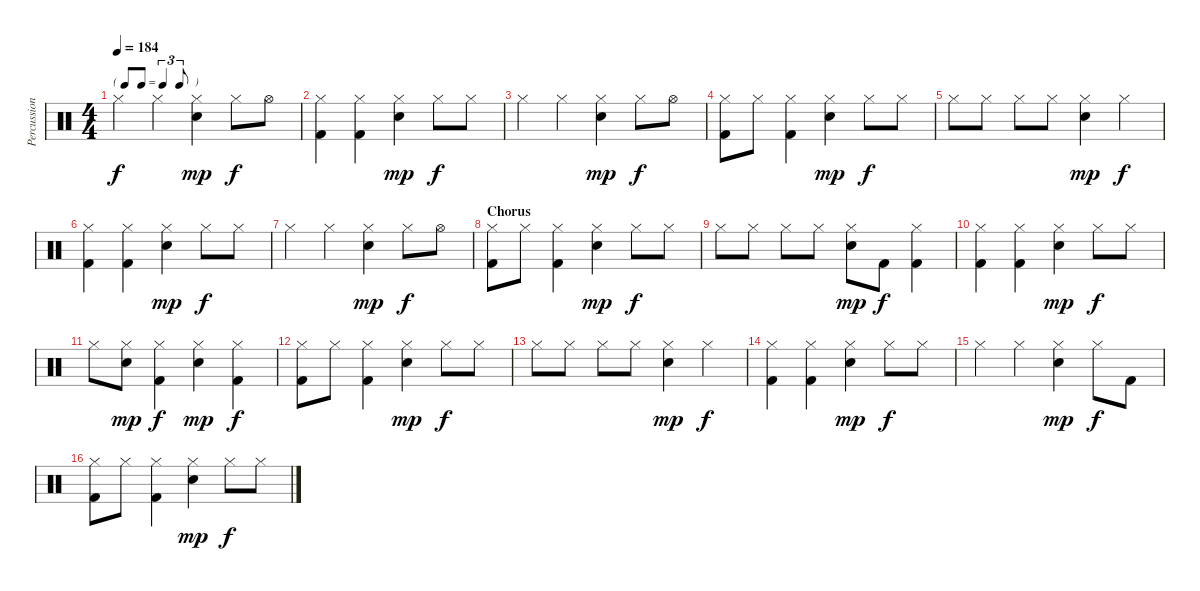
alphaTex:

\track ("Percussion" "Percussion") {instrument percussion}
\staff {score}
\articulation defaults
\ts (4 4)
\tf triplet8th
\tempo 184
\clef neutral
\ks c "Hi-Hat (closed)".4{dy f} "Hi-Hat (closed)".4
("Hi-Hat (closed)" "Electric Snare (hit)").4{dy mp} "Hi-Hat (closed)".8{dy f} "Hi-Hat (open)".8 |
("Hi-Hat (closed)" "Kick (hit) 2").4 ("Hi-Hat (closed)" "Kick (hit) 2").4 ("Hi-Hat (closed)" "Electric Snare (hit)").4{dy mp} "Hi-Hat (closed)".8{dy f} "Hi-Hat (closed)".8 |
"Hi-Hat (closed)".4 "Hi-Hat (closed)".4 ("Hi-Hat (closed)" "Electric Snare (hit)").4{dy mp} "Hi-Hat (closed)".8{dy f} "Hi-Hat (open)".8 |
("Hi-Hat (closed)" "Kick (hit) 2").8 "Hi-Hat (closed)".8 ("Hi-Hat (closed)" "Kick (hit) 2").4 ("Hi-Hat (closed)" "Electric Snare (hit)").4{dy mp} "Hi-Hat (closed)".8{dy f} "Hi-Hat (closed)".8 |
"Hi-Hat (closed)".8 "Hi-Hat (closed)".8 "Hi-Hat (closed)".8 "Hi-Hat (closed)".8 ("Hi-Hat (closed)" "Electric Snare (hit)").4{dy mp} "Hi-Hat (closed)".4{dy f} |
("Hi-Hat (closed)" "Kick (hit) 2").4 ("Hi-Hat (closed)" "Kick (hit) 2").4 ("Hi-Hat (closed)" "Electric Snare (hit)").4{dy mp} "Hi-Hat (closed)".8{dy f} "Hi-Hat (closed)".8 |
"Hi-Hat (closed)".4 "Hi-Hat (closed)".4 ("Hi-Hat (closed)" "Electric Snare (hit)").4{dy mp} "Hi-Hat (closed)".8{dy f} "Hi-Hat (open)".8 |
\section ("" "Chorus")
("Hi-Hat (closed)" "Kick (hit) 2").8 "Hi-Hat (closed)".8 ("Hi-Hat (closed)" "Kick (hit) 2").4 ("Hi-Hat (closed)" "Electric Snare (hit)").4{dy mp} "Hi-Hat (closed)".8{dy f} "Hi-Hat (closed)".8 |
"Hi-Hat (closed)".8 "Hi-Hat (closed)".8 "Hi-Hat (closed)".8 "Hi-Hat (closed)".8 ("Hi-Hat (closed)" "Electric Snare (hit)").8{dy mp} "Kick (hit) 2".8{dy f} ("Hi-Hat (closed)" "Kick (hit) 2").4 |
("Hi-Hat (closed)" "Kick (hit) 2").4 ("Hi-Hat (closed)" "Kick (hit) 2").4 ("Hi-Hat (closed)" "Electric Snare (hit)").4{dy mp} "Hi-Hat (closed)".8{dy f} "Hi-Hat (closed)".8 |
"Hi-Hat (closed)".8 ("Hi-Hat (closed)" "Electric Snare (hit)").8{dy mp} ("Hi-Hat (closed)" "Kick (hit) 2").4{dy f} ("Hi-Hat (closed)" "Electric Snare (hit)").4{dy mp} ("Hi-Hat (closed)" "Kick (hit) 2").4{dy f} |
("Hi-Hat (closed)" "Kick (hit) 2").8 "Hi-Hat (closed)".8 ("Hi-Hat (closed)" "Kick (hit) 2").4 ("Hi-Hat (closed)" "Electric Snare (hit)").4{dy mp} "Hi-Hat (closed)".8{dy f} "Hi-Hat (closed)".8 |
"Hi-Hat (closed)".8 "Hi-Hat (closed)".8 "Hi-Hat (closed)".8 "Hi-Hat (closed)".8 ("Hi-Hat (closed)" "Electric Snare (hit)").4{dy mp} "Hi-Hat (closed)".4{dy f} |
("Hi-Hat (closed)" "Kick (hit) 2").4 ("Hi-Hat (closed)" "Kick (hit) 2").4 ("Hi-Hat (closed)" "Electric Snare (hit)").4{dy mp} "Hi-Hat (closed)".8{dy f} "Hi-Hat (closed)".8 |
"Hi-Hat (closed)".4 "Hi-Hat (closed)".4 ("Hi-Hat (closed)" "Electric Snare (hit)").4{dy mp} "Hi-Hat (closed)".8{dy f} "Kick (hit) 2".8 |
("Hi-Hat (closed)" "Kick (hit) 2").8 "Hi-Hat (closed)".8 ("Hi-Hat (closed)" "Kick (hit) 2").4 ("Hi-Hat (closed)" "Electric Snare (hit)").4{dy mp} "Hi-Hat (closed)".8{dy f} "Hi-Hat (closed)".8
